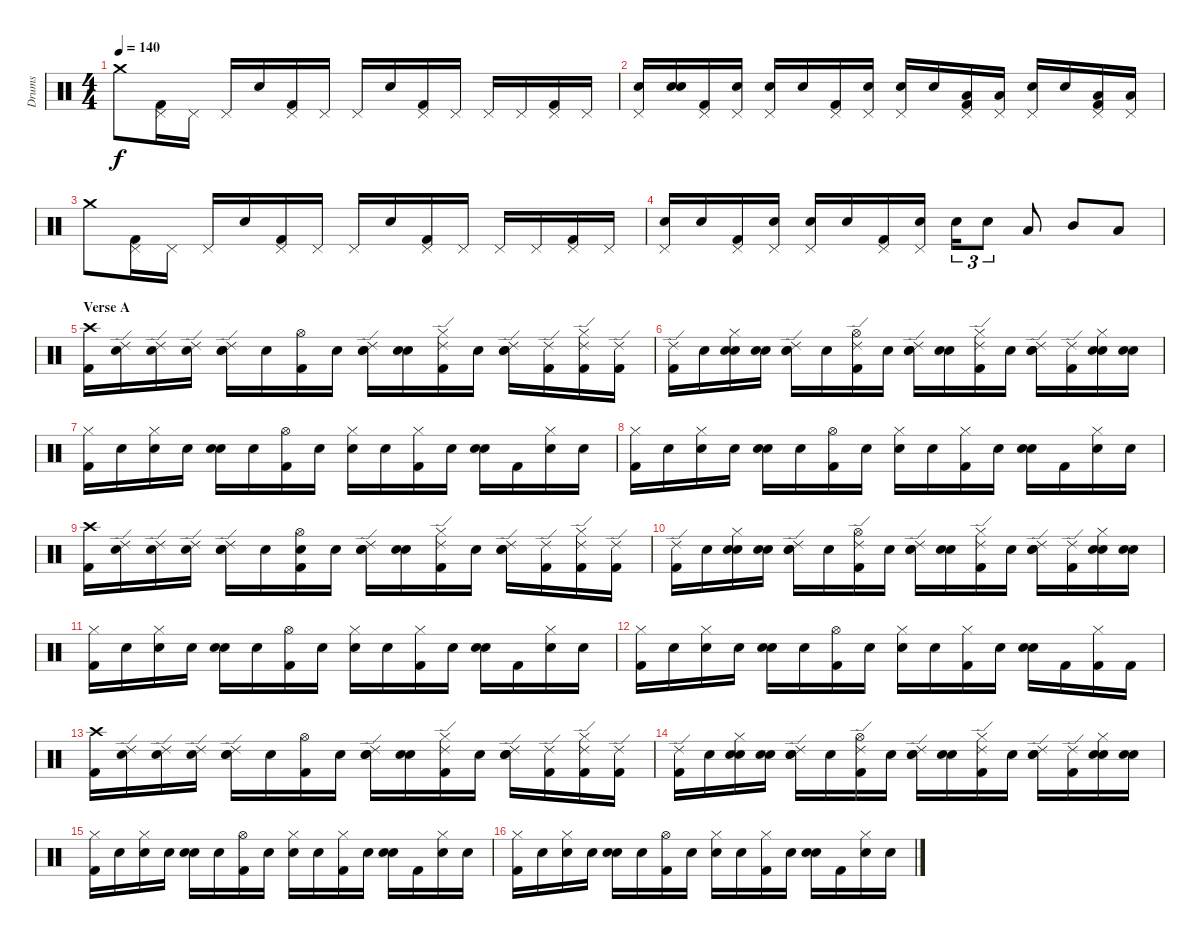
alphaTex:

\track ("Drums" "Drums") {instrument percussion}
\staff {score}
\articulation defaults
\ts (4 4)
\tempo 140
\clef neutral
\ks c "Crash medium (hit)".8{dy f}
("Kick (hit) 2" "Pedal Hi-Hat (hit)").16 "Pedal Hi-Hat (hit)".16 "Pedal Hi-Hat (hit)".16 "Snare (hit)".16 ("Kick (hit) 2" "Pedal Hi-Hat (hit)").16 "Pedal Hi-Hat (hit)".16 "Pedal Hi-Hat (hit)".16 "Snare (hit)".16 ("Kick (hit) 2" "Pedal Hi-Hat (hit)").16 "Pedal Hi-Hat (hit)".16 "Pedal Hi-Hat (hit)".16 "Pedal Hi-Hat (hit)".16 ("Kick (hit) 2" "Pedal Hi-Hat (hit)").16 "Pedal Hi-Hat (hit)".16 |
("Snare (hit)" "Pedal Hi-Hat (hit)").16 ("Snare (hit)" "Snare (hit)").16 ("Kick (hit) 2" "Pedal Hi-Hat (hit)").16 ("Snare (hit)" "Pedal Hi-Hat (hit)").16 ("Snare (hit)" "Pedal Hi-Hat (hit)").16 "Snare (hit)".16 ("Kick (hit) 2" "Pedal Hi-Hat (hit)").16 ("Snare (hit)" "Pedal Hi-Hat (hit)").16 ("Electric Snare (hit)" "Pedal Hi-Hat (hit)").16 "Electric Snare (hit)".16 ("Kick (hit) 2" "Low Tom (hit)" "Pedal Hi-Hat (hit)").16 ("Low Tom (hit)" "Pedal Hi-Hat (hit)").16 ("Electric Snare (hit)" "Pedal Hi-Hat (hit)").16 "Electric Snare (hit)".16 ("Kick (hit) 2" "Low Tom (hit)" "Pedal Hi-Hat (hit)").16 ("Low Tom (hit)" "Pedal Hi-Hat (hit)").16 |
"Crash medium (hit)".8 ("Kick (hit) 2" "Pedal Hi-Hat (hit)").16 "Pedal Hi-Hat (hit)".16 "Pedal Hi-Hat (hit)".16 "Snare (hit)".16 ("Kick (hit) 2" "Pedal Hi-Hat (hit)").16 "Pedal Hi-Hat (hit)".16 "Pedal Hi-Hat (hit)".16 "Snare (hit)".16 ("Kick (hit) 2" "Pedal Hi-Hat (hit)").16 "Pedal Hi-Hat (hit)".16 "Pedal Hi-Hat (hit)".16 "Pedal Hi-Hat (hit)".16 ("Kick (hit) 2" "Pedal Hi-Hat (hit)").16 "Pedal Hi-Hat (hit)".16 |
("Snare (hit)" "Pedal Hi-Hat (hit)").16 "Snare (hit)".16 ("Kick (hit) 2" "Pedal Hi-Hat (hit)").16 ("Snare (hit)" "Pedal Hi-Hat (hit)").16 ("Snare (hit)" "Pedal Hi-Hat (hit)").16 "Snare (hit)".16 ("Kick (hit) 2" "Pedal Hi-Hat (hit)").16 ("Snare (hit)" "Pedal Hi-Hat (hit)").16 "Electric Snare (hit)".16{tu (3 2)} "Electric Snare (hit)".8{tu (3 2)} "Low Tom (hit)".8 "Mid Tom (hit)".8 "Low Tom (hit)".8 |
\section ("" "Verse A")
("Kick (hit) 2" "Crash high (hit)").16 ("Snare (hit)" "Ride (edge) 2").16 ("Snare (hit)" "Ride (edge) 2").16 ("Snare (hit)" "Ride (edge) 2").16 ("Snare (hit)" "Electric Snare (hit)" "Ride (edge) 2").16 "Snare (hit)".16 ("Kick (hit) 2" "Hi-Hat (open)").16 "Snare (hit)".16 ("Snare (hit)" "Snare (hit)" "Ride (edge) 2").16 ("Snare (hit)" "Snare (hit)").16 ("Kick (hit) 2" "Hi-Hat (closed)" "Ride (edge) 2").16 "Snare (hit)".16 ("Snare (hit)" "Electric Snare (hit)" "Ride (edge) 2").16 ("Kick (hit) 2" "Ride (edge) 2").16 ("Kick (hit) 2" "Hi-Hat (closed)" "Ride (edge) 2").16 ("Kick (hit) 2" "Ride (edge) 2").16 |
("Kick (hit) 2" "Ride (edge) 2").16 "Snare (hit)".16 ("Snare (hit)" "Hi-Hat (closed)" "Snare (hit)").16 ("Snare (hit)" "Snare (hit)").16 ("Snare (hit)" "Electric Snare (hit)" "Ride (edge) 2").16 "Snare (hit)".16 ("Kick (hit) 2" "Hi-Hat (open)" "Ride (edge) 2").16 "Snare (hit)".16 ("Snare (hit)" "Snare (hit)" "Ride (edge) 2").16 ("Snare (hit)" "Snare (hit)").16 ("Kick (hit) 2" "Hi-Hat (closed)" "Ride (edge) 2").16 "Snare (hit)".16 ("Snare (hit)" "Electric Snare (hit)" "Ride (edge) 2").16 ("Kick (hit) 2" "Ride (edge) 2").16 ("Snare (hit)" "Hi-Hat (closed)" "Snare (hit)").16 ("Snare (hit)" "Snare (hit)").16 |
("Kick (hit) 2" "Hi-Hat (closed)").16 "Snare (hit)".16 ("Snare (hit)" "Hi-Hat (closed)").16 "Snare (hit)".16 ("Snare (hit)" "Electric Snare (hit)").16 "Snare (hit)".16 ("Kick (hit) 2" "Hi-Hat (open)").16 "Snare (hit)".16 ("Snare (hit)" "Hi-Hat (closed)").16 "Snare (hit)".16 ("Kick (hit) 2" "Hi-Hat (closed)").16 "Snare (hit)".16 ("Snare (hit)" "Electric Snare (hit)").16 "Kick (hit) 2".16 ("Snare (hit)" "Hi-Hat (closed)").16 "Snare (hit)".16 |
("Kick (hit) 2" "Hi-Hat (closed)").16 "Snare (hit)".16 ("Snare (hit)" "Hi-Hat (closed)").16 "Snare (hit)".16 ("Snare (hit)" "Electric Snare (hit)").16 "Snare (hit)".16 ("Kick (hit) 2" "Hi-Hat (open)").16 "Snare (hit)".16 ("Snare (hit)" "Hi-Hat (closed)").16 "Snare (hit)".16 ("Kick (hit) 2" "Hi-Hat (closed)").16 "Snare (hit)".16 ("Snare (hit)" "Electric Snare (hit)").16 "Kick (hit) 2".16 ("Snare (hit)" "Hi-Hat (closed)").16 "Snare (hit)".16 |
("Kick (hit) 2" "Crash high (hit)").16 ("Snare (hit)" "Ride (edge) 2").16 ("Snare (hit)" "Ride (edge) 2").16 ("Snare (hit)" "Ride (edge) 2").16 ("Snare (hit)" "Electric Snare (hit)" "Ride (edge) 2").16 "Snare (hit)".16 ("Kick (hit) 2" "Hi-Hat (open)" "Snare (hit)").16 "Snare (hit)".16 ("Snare (hit)" "Snare (hit)" "Ride (edge) 2").16 ("Snare (hit)" "Snare (hit)").16 ("Kick (hit) 2" "Hi-Hat (closed)" "Ride (edge) 2").16 "Snare (hit)".16 ("Snare (hit)" "Electric Snare (hit)" "Ride (edge) 2").16 ("Kick (hit) 2" "Ride (edge) 2").16 ("Kick (hit) 2" "Hi-Hat (closed)" "Ride (edge) 2").16 ("Kick (hit) 2" "Ride (edge) 2").16 |
("Kick (hit) 2" "Ride (edge) 2").16 "Snare (hit)".16 ("Snare (hit)" "Hi-Hat (closed)" "Snare (hit)").16 ("Snare (hit)" "Snare (hit)").16 ("Snare (hit)" "Electric Snare (hit)" "Ride (edge) 2").16 "Snare (hit)".16 ("Kick (hit) 2" "Hi-Hat (open)" "Ride (edge) 2").16 "Snare (hit)".16 ("Snare (hit)" "Snare (hit)" "Ride (edge) 2").16 ("Snare (hit)" "Snare (hit)").16 ("Kick (hit) 2" "Hi-Hat (closed)" "Ride (edge) 2").16 "Snare (hit)".16 ("Snare (hit)" "Electric Snare (hit)" "Ride (edge) 2").16 ("Kick (hit) 2" "Ride (edge) 2").16 ("Snare (hit)" "Hi-Hat (closed)" "Snare (hit)").16 ("Snare (hit)" "Snare (hit)").16 |
("Kick (hit) 2" "Hi-Hat (closed)").16 "Snare (hit)".16 ("Snare (hit)" "Hi-Hat (closed)").16 "Snare (hit)".16 ("Snare (hit)" "Electric Snare (hit)").16 "Snare (hit)".16 ("Kick (hit) 2" "Hi-Hat (open)").16 "Snare (hit)".16 ("Snare (hit)" "Hi-Hat (closed)").16 "Snare (hit)".16 ("Kick (hit) 2" "Hi-Hat (closed)").16 "Snare (hit)".16 ("Snare (hit)" "Electric Snare (hit)").16 "Kick (hit) 2".16 ("Snare (hit)" "Hi-Hat (closed)").16 "Snare (hit)".16 |
("Kick (hit) 2" "Hi-Hat (closed)").16 "Snare (hit)".16 ("Snare (hit)" "Hi-Hat (closed)").16 "Snare (hit)".16 ("Snare (hit)" "Electric Snare (hit)").16 "Snare (hit)".16 ("Kick (hit) 2" "Hi-Hat (open)").16 "Snare (hit)".16 ("Snare (hit)" "Hi-Hat (closed)").16 "Snare (hit)".16 ("Kick (hit) 2" "Hi-Hat (closed)").16 "Snare (hit)".16 ("Snare (hit)" "Electric Snare (hit)").16 "Kick (hit) 2".16 ("Kick (hit) 2" "Hi-Hat (closed)").16 "Kick (hit) 2".16 |
("Kick (hit) 2" "Crash high (hit)").16 ("Snare (hit)" "Ride (edge) 2").16 ("Snare (hit)" "Ride (edge) 2").16 ("Snare (hit)" "Ride (edge) 2").16 ("Snare (hit)" "Electric Snare (hit)" "Ride (edge) 2").16 "Snare (hit)".16 ("Kick (hit) 2" "Hi-Hat (open)").16 "Snare (hit)".16 ("Snare (hit)" "Snare (hit)" "Ride (edge) 2").16 ("Snare (hit)" "Snare (hit)").16 ("Kick (hit) 2" "Hi-Hat (closed)" "Ride (edge) 2").16 "Snare (hit)".16 ("Snare (hit)" "Electric Snare (hit)" "Ride (edge) 2").16 ("Kick (hit) 2" "Ride (edge) 2").16 ("Kick (hit) 2" "Hi-Hat (closed)" "Ride (edge) 2").16 ("Kick (hit) 2" "Ride (edge) 2").16 |
("Kick (hit) 2" "Ride (edge) 2").16 "Snare (hit)".16 ("Snare (hit)" "Hi-Hat (closed)" "Snare (hit)").16 ("Snare (hit)" "Snare (hit)").16 ("Snare (hit)" "Electric Snare (hit)" "Ride (edge) 2").16 "Snare (hit)".16 ("Kick (hit) 2" "Hi-Hat (open)" "Ride (edge) 2").16 "Snare (hit)".16 ("Snare (hit)" "Snare (hit)" "Ride (edge) 2").16 ("Snare (hit)" "Snare (hit)").16 ("Kick (hit) 2" "Hi-Hat (closed)" "Ride (edge) 2").16 "Snare (hit)".16 ("Snare (hit)" "Electric Snare (hit)" "Ride (edge) 2").16 ("Kick (hit) 2" "Ride (edge) 2").16 ("Snare (hit)" "Hi-Hat (closed)" "Snare (hit)").16 ("Snare (hit)" "Snare (hit)").16 |
("Kick (hit) 2" "Hi-Hat (closed)").16 "Snare (hit)".16 ("Snare (hit)" "Hi-Hat (closed)").16 "Snare (hit)".16 ("Snare (hit)" "Electric Snare (hit)").16 "Snare (hit)".16 ("Kick (hit) 2" "Hi-Hat (open)").16 "Snare (hit)".16 ("Snare (hit)" "Hi-Hat (closed)").16 "Snare (hit)".16 ("Kick (hit) 2" "Hi-Hat (closed)").16 "Snare (hit)".16 ("Snare (hit)" "Electric Snare (hit)").16 "Kick (hit) 2".16 ("Snare (hit)" "Hi-Hat (closed)").16 "Snare (hit)".16 |
("Kick (hit) 2" "Hi-Hat (closed)").16 "Snare (hit)".16 ("Snare (hit)" "Hi-Hat (closed)").16 "Snare (hit)".16 ("Snare (hit)" "Electric Snare (hit)").16 "Snare (hit)".16 ("Kick (hit) 2" "Hi-Hat (open)").16 "Snare (hit)".16 ("Snare (hit)" "Hi-Hat (closed)").16 "Snare (hit)".16 ("Kick (hit) 2" "Hi-Hat (closed)").16 "Snare (hit)".16 ("Snare (hit)" "Electric Snare (hit)").16 "Kick (hit) 2".16 ("Snare (hit)" "Hi-Hat (closed)").16 "Snare (hit)".16
